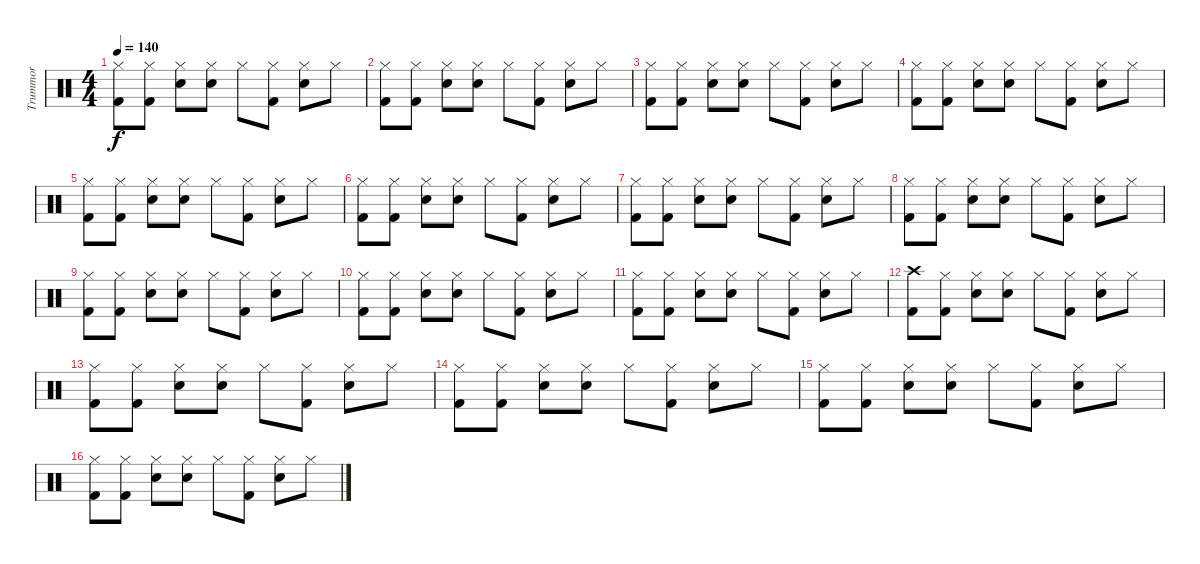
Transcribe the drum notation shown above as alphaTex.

\track ("Trummor" "Trummor") {instrument percussion}
\staff {score}
\articulation defaults
\ts (4 4)
\tempo 140
\clef neutral
\ks c
("Hi-Hat (closed)" "Kick (hit) 2").8{dy f} ("Hi-Hat (closed)" "Kick (hit) 2").8 ("Hi-Hat (closed)" "Electric Snare (hit)").8 ("Hi-Hat (closed)" "Electric Snare (hit)").8 "Hi-Hat (closed)".8 ("Hi-Hat (closed)" "Kick (hit) 2").8 ("Hi-Hat (closed)" "Electric Snare (hit)").8 "Hi-Hat (closed)".8 |
("Hi-Hat (closed)" "Kick (hit) 2").8 ("Hi-Hat (closed)" "Kick (hit) 2").8 ("Hi-Hat (closed)" "Electric Snare (hit)").8 ("Hi-Hat (closed)" "Electric Snare (hit)").8 "Hi-Hat (closed)".8 ("Hi-Hat (closed)" "Kick (hit) 2").8 ("Hi-Hat (closed)" "Electric Snare (hit)").8 "Hi-Hat (closed)".8 |
("Hi-Hat (closed)" "Kick (hit) 2").8 ("Hi-Hat (closed)" "Kick (hit) 2").8 ("Hi-Hat (closed)" "Electric Snare (hit)").8 ("Hi-Hat (closed)" "Electric Snare (hit)").8 "Hi-Hat (closed)".8 ("Hi-Hat (closed)" "Kick (hit) 2").8 ("Hi-Hat (closed)" "Electric Snare (hit)").8 "Hi-Hat (closed)".8 |
("Hi-Hat (closed)" "Kick (hit) 2").8 ("Hi-Hat (closed)" "Kick (hit) 2").8 ("Hi-Hat (closed)" "Electric Snare (hit)").8 ("Hi-Hat (closed)" "Electric Snare (hit)").8 "Hi-Hat (closed)".8 ("Hi-Hat (closed)" "Kick (hit) 2").8 ("Hi-Hat (closed)" "Electric Snare (hit)").8 "Hi-Hat (closed)".8 |
("Hi-Hat (closed)" "Kick (hit) 2").8 ("Hi-Hat (closed)" "Kick (hit) 2").8 ("Hi-Hat (closed)" "Electric Snare (hit)").8 ("Hi-Hat (closed)" "Electric Snare (hit)").8 "Hi-Hat (closed)".8 ("Hi-Hat (closed)" "Kick (hit) 2").8 ("Hi-Hat (closed)" "Electric Snare (hit)").8 "Hi-Hat (closed)".8 |
("Hi-Hat (closed)" "Kick (hit) 2").8 ("Hi-Hat (closed)" "Kick (hit) 2").8 ("Hi-Hat (closed)" "Electric Snare (hit)").8 ("Hi-Hat (closed)" "Electric Snare (hit)").8 "Hi-Hat (closed)".8 ("Hi-Hat (closed)" "Kick (hit) 2").8 ("Hi-Hat (closed)" "Electric Snare (hit)").8 "Hi-Hat (closed)".8 |
("Hi-Hat (closed)" "Kick (hit) 2").8 ("Hi-Hat (closed)" "Kick (hit) 2").8 ("Hi-Hat (closed)" "Electric Snare (hit)").8 ("Hi-Hat (closed)" "Electric Snare (hit)").8 "Hi-Hat (closed)".8 ("Hi-Hat (closed)" "Kick (hit) 2").8 ("Hi-Hat (closed)" "Electric Snare (hit)").8 "Hi-Hat (closed)".8 |
("Hi-Hat (closed)" "Kick (hit) 2").8 ("Hi-Hat (closed)" "Kick (hit) 2").8 ("Hi-Hat (closed)" "Electric Snare (hit)").8 ("Hi-Hat (closed)" "Electric Snare (hit)").8 "Hi-Hat (closed)".8 ("Hi-Hat (closed)" "Kick (hit) 2").8 ("Hi-Hat (closed)" "Electric Snare (hit)").8 "Hi-Hat (closed)".8 |
("Hi-Hat (closed)" "Kick (hit) 2").8 ("Hi-Hat (closed)" "Kick (hit) 2").8 ("Hi-Hat (closed)" "Electric Snare (hit)").8 ("Hi-Hat (closed)" "Electric Snare (hit)").8 "Hi-Hat (closed)".8 ("Hi-Hat (closed)" "Kick (hit) 2").8 ("Hi-Hat (closed)" "Electric Snare (hit)").8 "Hi-Hat (closed)".8 |
("Hi-Hat (closed)" "Kick (hit) 2").8 ("Hi-Hat (closed)" "Kick (hit) 2").8 ("Hi-Hat (closed)" "Electric Snare (hit)").8 ("Hi-Hat (closed)" "Electric Snare (hit)").8 "Hi-Hat (closed)".8 ("Hi-Hat (closed)" "Kick (hit) 2").8 ("Hi-Hat (closed)" "Electric Snare (hit)").8 "Hi-Hat (closed)".8 |
("Hi-Hat (closed)" "Kick (hit) 2").8 ("Hi-Hat (closed)" "Kick (hit) 2").8 ("Hi-Hat (closed)" "Electric Snare (hit)").8 ("Hi-Hat (closed)" "Electric Snare (hit)").8 "Hi-Hat (closed)".8 ("Hi-Hat (closed)" "Kick (hit) 2").8 ("Hi-Hat (closed)" "Electric Snare (hit)").8 "Hi-Hat (closed)".8 |
("Crash high (hit)" "Kick (hit) 2").8 ("Hi-Hat (closed)" "Kick (hit) 2").8 ("Hi-Hat (closed)" "Electric Snare (hit)").8 ("Hi-Hat (closed)" "Electric Snare (hit)").8 "Hi-Hat (closed)".8 ("Hi-Hat (closed)" "Kick (hit) 2").8 ("Hi-Hat (closed)" "Electric Snare (hit)").8 "Hi-Hat (closed)".8 |
("Hi-Hat (closed)" "Kick (hit) 2").8 ("Hi-Hat (closed)" "Kick (hit) 2").8 ("Hi-Hat (closed)" "Electric Snare (hit)").8 ("Hi-Hat (closed)" "Electric Snare (hit)").8 "Hi-Hat (closed)".8 ("Hi-Hat (closed)" "Kick (hit) 2").8 ("Hi-Hat (closed)" "Electric Snare (hit)").8 "Hi-Hat (closed)".8 |
("Hi-Hat (closed)" "Kick (hit) 2").8 ("Hi-Hat (closed)" "Kick (hit) 2").8 ("Hi-Hat (closed)" "Electric Snare (hit)").8 ("Hi-Hat (closed)" "Electric Snare (hit)").8 "Hi-Hat (closed)".8 ("Hi-Hat (closed)" "Kick (hit) 2").8 ("Hi-Hat (closed)" "Electric Snare (hit)").8 "Hi-Hat (closed)".8 |
("Hi-Hat (closed)" "Kick (hit) 2").8 ("Hi-Hat (closed)" "Kick (hit) 2").8 ("Hi-Hat (closed)" "Electric Snare (hit)").8 ("Hi-Hat (closed)" "Electric Snare (hit)").8 "Hi-Hat (closed)".8 ("Hi-Hat (closed)" "Kick (hit) 2").8 ("Hi-Hat (closed)" "Electric Snare (hit)").8 "Hi-Hat (closed)".8 |
("Hi-Hat (closed)" "Kick (hit) 2").8 ("Hi-Hat (closed)" "Kick (hit) 2").8 ("Hi-Hat (closed)" "Electric Snare (hit)").8 ("Hi-Hat (closed)" "Electric Snare (hit)").8 "Hi-Hat (closed)".8 ("Hi-Hat (closed)" "Kick (hit) 2").8 ("Hi-Hat (closed)" "Electric Snare (hit)").8 "Hi-Hat (closed)".8
